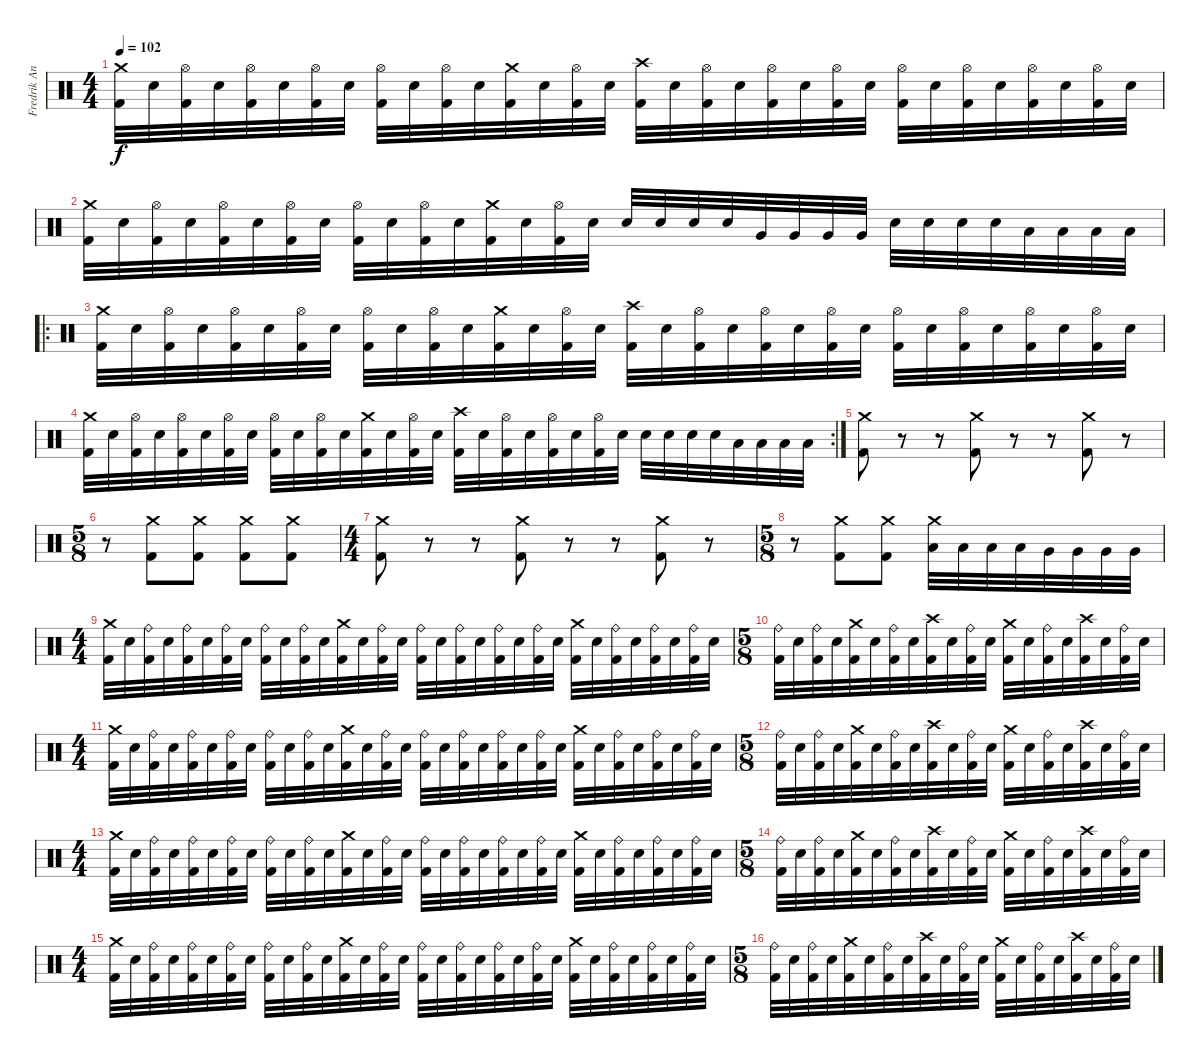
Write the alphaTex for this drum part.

\track ("Fredrik Andersson" "Fredrik An") {instrument percussion}
\staff {score}
\articulation defaults
\ts (4 4)
\tempo 102
\clef neutral
\ks c
("Crash medium (hit)" "Kick (hit) 2").32{dy f} "Electric Snare (hit)".32 ("Hi-Hat (open)" "Kick (hit) 2").32 "Electric Snare (hit)".32 ("Hi-Hat (open)" "Kick (hit) 2").32 "Electric Snare (hit)".32 ("Hi-Hat (open)" "Kick (hit) 2").32 "Electric Snare (hit)".32 ("Hi-Hat (open)" "Kick (hit) 2").32 "Electric Snare (hit)".32 ("Hi-Hat (open)" "Kick (hit) 2").32 "Electric Snare (hit)".32 ("Crash medium (hit)" "Kick (hit) 2").32 "Electric Snare (hit)".32 ("Hi-Hat (open)" "Kick (hit) 2").32 "Electric Snare (hit)".32 ("Crash high (hit)" "Kick (hit) 2").32 "Electric Snare (hit)".32 ("Hi-Hat (open)" "Kick (hit) 2").32 "Electric Snare (hit)".32 ("Hi-Hat (open)" "Kick (hit) 2").32 "Electric Snare (hit)".32 ("Hi-Hat (open)" "Kick (hit) 2").32 "Electric Snare (hit)".32 ("Hi-Hat (open)" "Kick (hit) 2").32 "Electric Snare (hit)".32 ("Hi-Hat (open)" "Kick (hit) 2").32 "Electric Snare (hit)".32 ("Hi-Hat (open)" "Kick (hit) 2").32 "Electric Snare (hit)".32 ("Hi-Hat (open)" "Kick (hit) 2").32 "Electric Snare (hit)".32 |
("Crash medium (hit)" "Kick (hit) 2").32 "Electric Snare (hit)".32 ("Hi-Hat (open)" "Kick (hit) 2").32 "Electric Snare (hit)".32 ("Hi-Hat (open)" "Kick (hit) 2").32 "Electric Snare (hit)".32 ("Hi-Hat (open)" "Kick (hit) 2").32 "Electric Snare (hit)".32 ("Hi-Hat (open)" "Kick (hit) 2").32 "Electric Snare (hit)".32 ("Hi-Hat (open)" "Kick (hit) 2").32 "Electric Snare (hit)".32 ("Crash medium (hit)" "Kick (hit) 2").32 "Electric Snare (hit)".32 ("Hi-Hat (open)" "Kick (hit) 2").32 "Electric Snare (hit)".32 "Electric Snare (hit)".32 "Electric Snare (hit)".32 "Electric Snare (hit)".32 "Electric Snare (hit)".32 "Very Low Tom (hit)".32 "Very Low Tom (hit)".32 "Very Low Tom (hit)".32 "Very Low Tom (hit)".32 "Electric Snare (hit)".32 "Electric Snare (hit)".32 "Electric Snare (hit)".32 "Electric Snare (hit)".32 "Low Tom (hit)".32 "Low Tom (hit)".32 "Low Tom (hit)".32 "Low Tom (hit)".32 |
\ro
("Crash medium (hit)" "Kick (hit) 2").32 "Electric Snare (hit)".32 ("Hi-Hat (open)" "Kick (hit) 2").32 "Electric Snare (hit)".32 ("Hi-Hat (open)" "Kick (hit) 2").32 "Electric Snare (hit)".32 ("Hi-Hat (open)" "Kick (hit) 2").32 "Electric Snare (hit)".32 ("Hi-Hat (open)" "Kick (hit) 2").32 "Electric Snare (hit)".32 ("Hi-Hat (open)" "Kick (hit) 2").32 "Electric Snare (hit)".32 ("Crash medium (hit)" "Kick (hit) 2").32 "Electric Snare (hit)".32 ("Hi-Hat (open)" "Kick (hit) 2").32 "Electric Snare (hit)".32 ("Crash high (hit)" "Kick (hit) 2").32 "Electric Snare (hit)".32 ("Hi-Hat (open)" "Kick (hit) 2").32 "Electric Snare (hit)".32 ("Hi-Hat (open)" "Kick (hit) 2").32 "Electric Snare (hit)".32 ("Hi-Hat (open)" "Kick (hit) 2").32 "Electric Snare (hit)".32 ("Hi-Hat (open)" "Kick (hit) 2").32 "Electric Snare (hit)".32 ("Hi-Hat (open)" "Kick (hit) 2").32 "Electric Snare (hit)".32 ("Hi-Hat (open)" "Kick (hit) 2").32 "Electric Snare (hit)".32 ("Hi-Hat (open)" "Kick (hit) 2").32 "Electric Snare (hit)".32 |
\rc 2
("Crash medium (hit)" "Kick (hit) 2").32 "Electric Snare (hit)".32 ("Hi-Hat (open)" "Kick (hit) 2").32 "Electric Snare (hit)".32 ("Hi-Hat (open)" "Kick (hit) 2").32 "Electric Snare (hit)".32 ("Hi-Hat (open)" "Kick (hit) 2").32 "Electric Snare (hit)".32 ("Hi-Hat (open)" "Kick (hit) 2").32 "Electric Snare (hit)".32 ("Hi-Hat (open)" "Kick (hit) 2").32 "Electric Snare (hit)".32 ("Crash medium (hit)" "Kick (hit) 2").32 "Electric Snare (hit)".32 ("Hi-Hat (open)" "Kick (hit) 2").32 "Electric Snare (hit)".32 ("Crash high (hit)" "Kick (hit) 2").32 "Electric Snare (hit)".32 ("Hi-Hat (open)" "Kick (hit) 2").32 "Electric Snare (hit)".32 ("Hi-Hat (open)" "Kick (hit) 2").32 "Electric Snare (hit)".32 ("Hi-Hat (open)" "Kick (hit) 2").32 "Electric Snare (hit)".32 "Electric Snare (hit)".32 "Electric Snare (hit)".32 "Electric Snare (hit)".32 "Electric Snare (hit)".32 "Low Tom (hit)".32 "Low Tom (hit)".32 "Low Tom (hit)".32 "Low Tom (hit)".32 |
("Crash medium (hit)" "Kick (hit) 2").8 r.8 r.8 ("Crash medium (hit)" "Kick (hit) 2").8 r.8 r.8 ("Crash medium (hit)" "Kick (hit) 2").8 r.8 |
\ts (5 8)
r.8 ("Crash medium (hit)" "Kick (hit) 2").8 ("Crash medium (hit)" "Kick (hit) 2").8 ("Crash medium (hit)" "Kick (hit) 2").8 ("Crash medium (hit)" "Kick (hit) 2").8 |
\ts (4 4)
("Crash medium (hit)" "Kick (hit) 2").8 r.8 r.8 ("Crash medium (hit)" "Kick (hit) 2").8 r.8 r.8 ("Crash medium (hit)" "Kick (hit) 2").8 r.8 |
\ts (5 8)
r.8 ("Crash medium (hit)" "Kick (hit) 2").8 ("Crash medium (hit)" "Kick (hit) 2").8 ("Crash medium (hit)" "Low Tom (hit)").32 "Low Tom (hit)".32 "Low Tom (hit)".32 "Low Tom (hit)".32 "Very Low Tom (hit)".32 "Very Low Tom (hit)".32 "Very Low Tom (hit)".32 "Very Low Tom (hit)".32 |
\ts (4 4)
("Crash medium (hit)" "Kick (hit) 2").32 "Electric Snare (hit)".32 ("Ride (bell)" "Kick (hit) 2").32 "Electric Snare (hit)".32 ("Ride (bell)" "Kick (hit) 2").32 "Electric Snare (hit)".32 ("Ride (bell)" "Kick (hit) 2").32 "Electric Snare (hit)".32 ("Ride (bell)" "Kick (hit) 2").32 "Electric Snare (hit)".32 ("Ride (bell)" "Kick (hit) 2").32 "Electric Snare (hit)".32 ("Crash medium (hit)" "Kick (hit) 2").32 "Electric Snare (hit)".32 ("Ride (bell)" "Kick (hit) 2").32 "Electric Snare (hit)".32 ("Ride (bell)" "Kick (hit) 2").32 "Electric Snare (hit)".32 ("Ride (bell)" "Kick (hit) 2").32 "Electric Snare (hit)".32 ("Ride (bell)" "Kick (hit) 2").32 "Electric Snare (hit)".32 ("Ride (bell)" "Kick (hit) 2").32 "Electric Snare (hit)".32 ("Crash medium (hit)" "Kick (hit) 2").32 "Electric Snare (hit)".32 ("Ride (bell)" "Kick (hit) 2").32 "Electric Snare (hit)".32 ("Ride (bell)" "Kick (hit) 2").32 "Electric Snare (hit)".32 ("Ride (bell)" "Kick (hit) 2").32 "Electric Snare (hit)".32 |
\ts (5 8)
("Ride (bell)" "Kick (hit) 2").32 "Electric Snare (hit)".32 ("Ride (bell)" "Kick (hit) 2").32 "Electric Snare (hit)".32 ("Crash medium (hit)" "Kick (hit) 2").32 "Electric Snare (hit)".32 ("Ride (bell)" "Kick (hit) 2").32 "Electric Snare (hit)".32 ("Crash high (hit)" "Kick (hit) 2").32 "Electric Snare (hit)".32 ("Ride (bell)" "Kick (hit) 2").32 "Electric Snare (hit)".32 ("Crash medium (hit)" "Kick (hit) 2").32 "Electric Snare (hit)".32 ("Ride (bell)" "Kick (hit) 2").32 "Electric Snare (hit)".32 ("Crash high (hit)" "Kick (hit) 2").32 "Electric Snare (hit)".32 ("Ride (bell)" "Kick (hit) 2").32 "Electric Snare (hit)".32 |
\ts (4 4)
("Crash medium (hit)" "Kick (hit) 2").32 "Electric Snare (hit)".32 ("Ride (bell)" "Kick (hit) 2").32 "Electric Snare (hit)".32 ("Ride (bell)" "Kick (hit) 2").32 "Electric Snare (hit)".32 ("Ride (bell)" "Kick (hit) 2").32 "Electric Snare (hit)".32 ("Ride (bell)" "Kick (hit) 2").32 "Electric Snare (hit)".32 ("Ride (bell)" "Kick (hit) 2").32 "Electric Snare (hit)".32 ("Crash medium (hit)" "Kick (hit) 2").32 "Electric Snare (hit)".32 ("Ride (bell)" "Kick (hit) 2").32 "Electric Snare (hit)".32 ("Ride (bell)" "Kick (hit) 2").32 "Electric Snare (hit)".32 ("Ride (bell)" "Kick (hit) 2").32 "Electric Snare (hit)".32 ("Ride (bell)" "Kick (hit) 2").32 "Electric Snare (hit)".32 ("Ride (bell)" "Kick (hit) 2").32 "Electric Snare (hit)".32 ("Crash medium (hit)" "Kick (hit) 2").32 "Electric Snare (hit)".32 ("Ride (bell)" "Kick (hit) 2").32 "Electric Snare (hit)".32 ("Ride (bell)" "Kick (hit) 2").32 "Electric Snare (hit)".32 ("Ride (bell)" "Kick (hit) 2").32 "Electric Snare (hit)".32 |
\ts (5 8)
("Ride (bell)" "Kick (hit) 2").32 "Electric Snare (hit)".32 ("Ride (bell)" "Kick (hit) 2").32 "Electric Snare (hit)".32 ("Crash medium (hit)" "Kick (hit) 2").32 "Electric Snare (hit)".32 ("Ride (bell)" "Kick (hit) 2").32 "Electric Snare (hit)".32 ("Crash high (hit)" "Kick (hit) 2").32 "Electric Snare (hit)".32 ("Ride (bell)" "Kick (hit) 2").32 "Electric Snare (hit)".32 ("Crash medium (hit)" "Kick (hit) 2").32 "Electric Snare (hit)".32 ("Ride (bell)" "Kick (hit) 2").32 "Electric Snare (hit)".32 ("Crash high (hit)" "Kick (hit) 2").32 "Electric Snare (hit)".32 ("Ride (bell)" "Kick (hit) 2").32 "Electric Snare (hit)".32 |
\ts (4 4)
("Crash medium (hit)" "Kick (hit) 2").32 "Electric Snare (hit)".32 ("Ride (bell)" "Kick (hit) 2").32 "Electric Snare (hit)".32 ("Ride (bell)" "Kick (hit) 2").32 "Electric Snare (hit)".32 ("Ride (bell)" "Kick (hit) 2").32 "Electric Snare (hit)".32 ("Ride (bell)" "Kick (hit) 2").32 "Electric Snare (hit)".32 ("Ride (bell)" "Kick (hit) 2").32 "Electric Snare (hit)".32 ("Crash medium (hit)" "Kick (hit) 2").32 "Electric Snare (hit)".32 ("Ride (bell)" "Kick (hit) 2").32 "Electric Snare (hit)".32 ("Ride (bell)" "Kick (hit) 2").32 "Electric Snare (hit)".32 ("Ride (bell)" "Kick (hit) 2").32 "Electric Snare (hit)".32 ("Ride (bell)" "Kick (hit) 2").32 "Electric Snare (hit)".32 ("Ride (bell)" "Kick (hit) 2").32 "Electric Snare (hit)".32 ("Crash medium (hit)" "Kick (hit) 2").32 "Electric Snare (hit)".32 ("Ride (bell)" "Kick (hit) 2").32 "Electric Snare (hit)".32 ("Ride (bell)" "Kick (hit) 2").32 "Electric Snare (hit)".32 ("Ride (bell)" "Kick (hit) 2").32 "Electric Snare (hit)".32 |
\ts (5 8)
("Ride (bell)" "Kick (hit) 2").32 "Electric Snare (hit)".32 ("Ride (bell)" "Kick (hit) 2").32 "Electric Snare (hit)".32 ("Crash medium (hit)" "Kick (hit) 2").32 "Electric Snare (hit)".32 ("Ride (bell)" "Kick (hit) 2").32 "Electric Snare (hit)".32 ("Crash high (hit)" "Kick (hit) 2").32 "Electric Snare (hit)".32 ("Ride (bell)" "Kick (hit) 2").32 "Electric Snare (hit)".32 ("Crash medium (hit)" "Kick (hit) 2").32 "Electric Snare (hit)".32 ("Ride (bell)" "Kick (hit) 2").32 "Electric Snare (hit)".32 ("Crash high (hit)" "Kick (hit) 2").32 "Electric Snare (hit)".32 ("Ride (bell)" "Kick (hit) 2").32 "Electric Snare (hit)".32 |
\ts (4 4)
("Crash medium (hit)" "Kick (hit) 2").32 "Electric Snare (hit)".32 ("Ride (bell)" "Kick (hit) 2").32 "Electric Snare (hit)".32 ("Ride (bell)" "Kick (hit) 2").32 "Electric Snare (hit)".32 ("Ride (bell)" "Kick (hit) 2").32 "Electric Snare (hit)".32 ("Ride (bell)" "Kick (hit) 2").32 "Electric Snare (hit)".32 ("Ride (bell)" "Kick (hit) 2").32 "Electric Snare (hit)".32 ("Crash medium (hit)" "Kick (hit) 2").32 "Electric Snare (hit)".32 ("Ride (bell)" "Kick (hit) 2").32 "Electric Snare (hit)".32 ("Ride (bell)" "Kick (hit) 2").32 "Electric Snare (hit)".32 ("Ride (bell)" "Kick (hit) 2").32 "Electric Snare (hit)".32 ("Ride (bell)" "Kick (hit) 2").32 "Electric Snare (hit)".32 ("Ride (bell)" "Kick (hit) 2").32 "Electric Snare (hit)".32 ("Crash medium (hit)" "Kick (hit) 2").32 "Electric Snare (hit)".32 ("Ride (bell)" "Kick (hit) 2").32 "Electric Snare (hit)".32 ("Ride (bell)" "Kick (hit) 2").32 "Electric Snare (hit)".32 ("Ride (bell)" "Kick (hit) 2").32 "Electric Snare (hit)".32 |
\ts (5 8)
("Ride (bell)" "Kick (hit) 2").32 "Electric Snare (hit)".32 ("Ride (bell)" "Kick (hit) 2").32 "Electric Snare (hit)".32 ("Crash medium (hit)" "Kick (hit) 2").32 "Electric Snare (hit)".32 ("Ride (bell)" "Kick (hit) 2").32 "Electric Snare (hit)".32 ("Crash high (hit)" "Kick (hit) 2").32 "Electric Snare (hit)".32 ("Ride (bell)" "Kick (hit) 2").32 "Electric Snare (hit)".32 ("Crash medium (hit)" "Kick (hit) 2").32 "Electric Snare (hit)".32 ("Ride (bell)" "Kick (hit) 2").32 "Electric Snare (hit)".32 ("Crash high (hit)" "Kick (hit) 2").32 "Electric Snare (hit)".32 ("Ride (bell)" "Kick (hit) 2").32 "Electric Snare (hit)".32
